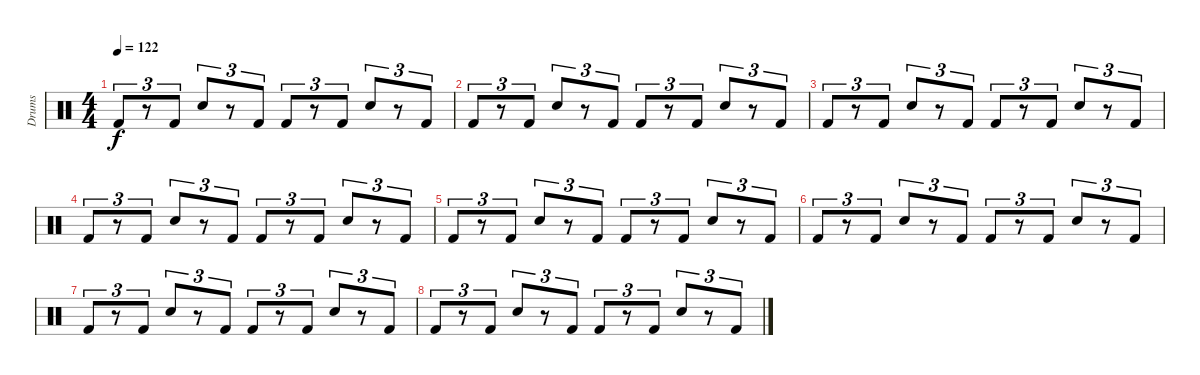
\track ("Drums" "Drums") {instrument percussion}
\staff {score}
\articulation defaults
\ts (4 4)
\tempo 122
\clef neutral
\ks c "Kick (hit) 2".8{tu (3 2) dy f}
r.8{tu (3 2)} "Kick (hit) 2".8{tu (3 2)} "Snare (hit) 2".8{tu (3 2)} r.8{tu (3 2)} "Kick (hit) 2".8{tu (3 2)} "Kick (hit) 2".8{tu (3 2)} r.8{tu (3 2)} "Kick (hit) 2".8{tu (3 2)} "Snare (hit) 2".8{tu (3 2)} r.8{tu (3 2)} "Kick (hit) 2".8{tu (3 2)} |
"Kick (hit) 2".8{tu (3 2)} r.8{tu (3 2)} "Kick (hit) 2".8{tu (3 2)} "Snare (hit) 2".8{tu (3 2)} r.8{tu (3 2)} "Kick (hit) 2".8{tu (3 2)} "Kick (hit) 2".8{tu (3 2)} r.8{tu (3 2)} "Kick (hit) 2".8{tu (3 2)} "Snare (hit) 2".8{tu (3 2)} r.8{tu (3 2)} "Kick (hit) 2".8{tu (3 2)} |
"Kick (hit) 2".8{tu (3 2)} r.8{tu (3 2)} "Kick (hit) 2".8{tu (3 2)} "Snare (hit) 2".8{tu (3 2)} r.8{tu (3 2)} "Kick (hit) 2".8{tu (3 2)} "Kick (hit) 2".8{tu (3 2)} r.8{tu (3 2)} "Kick (hit) 2".8{tu (3 2)} "Snare (hit) 2".8{tu (3 2)} r.8{tu (3 2)} "Kick (hit) 2".8{tu (3 2)} |
"Kick (hit) 2".8{tu (3 2)} r.8{tu (3 2)} "Kick (hit) 2".8{tu (3 2)} "Snare (hit) 2".8{tu (3 2)} r.8{tu (3 2)} "Kick (hit) 2".8{tu (3 2)} "Kick (hit) 2".8{tu (3 2)} r.8{tu (3 2)} "Kick (hit) 2".8{tu (3 2)} "Snare (hit) 2".8{tu (3 2)} r.8{tu (3 2)} "Kick (hit) 2".8{tu (3 2)} |
"Kick (hit) 2".8{tu (3 2)} r.8{tu (3 2)} "Kick (hit) 2".8{tu (3 2)} "Snare (hit) 2".8{tu (3 2)} r.8{tu (3 2)} "Kick (hit) 2".8{tu (3 2)} "Kick (hit) 2".8{tu (3 2)} r.8{tu (3 2)} "Kick (hit) 2".8{tu (3 2)} "Snare (hit) 2".8{tu (3 2)} r.8{tu (3 2)} "Kick (hit) 2".8{tu (3 2)} |
"Kick (hit) 2".8{tu (3 2)} r.8{tu (3 2)} "Kick (hit) 2".8{tu (3 2)} "Snare (hit) 2".8{tu (3 2)} r.8{tu (3 2)} "Kick (hit) 2".8{tu (3 2)} "Kick (hit) 2".8{tu (3 2)} r.8{tu (3 2)} "Kick (hit) 2".8{tu (3 2)} "Snare (hit) 2".8{tu (3 2)} r.8{tu (3 2)} "Kick (hit) 2".8{tu (3 2)} |
"Kick (hit) 2".8{tu (3 2)} r.8{tu (3 2)} "Kick (hit) 2".8{tu (3 2)} "Snare (hit) 2".8{tu (3 2)} r.8{tu (3 2)} "Kick (hit) 2".8{tu (3 2)} "Kick (hit) 2".8{tu (3 2)} r.8{tu (3 2)} "Kick (hit) 2".8{tu (3 2)} "Snare (hit) 2".8{tu (3 2)} r.8{tu (3 2)} "Kick (hit) 2".8{tu (3 2)} |
"Kick (hit) 2".8{tu (3 2)} r.8{tu (3 2)} "Kick (hit) 2".8{tu (3 2)} "Snare (hit) 2".8{tu (3 2)} r.8{tu (3 2)} "Kick (hit) 2".8{tu (3 2)} "Kick (hit) 2".8{tu (3 2)} r.8{tu (3 2)} "Kick (hit) 2".8{tu (3 2)} "Snare (hit) 2".8{tu (3 2)} r.8{tu (3 2)} "Kick (hit) 2".8{tu (3 2)}
